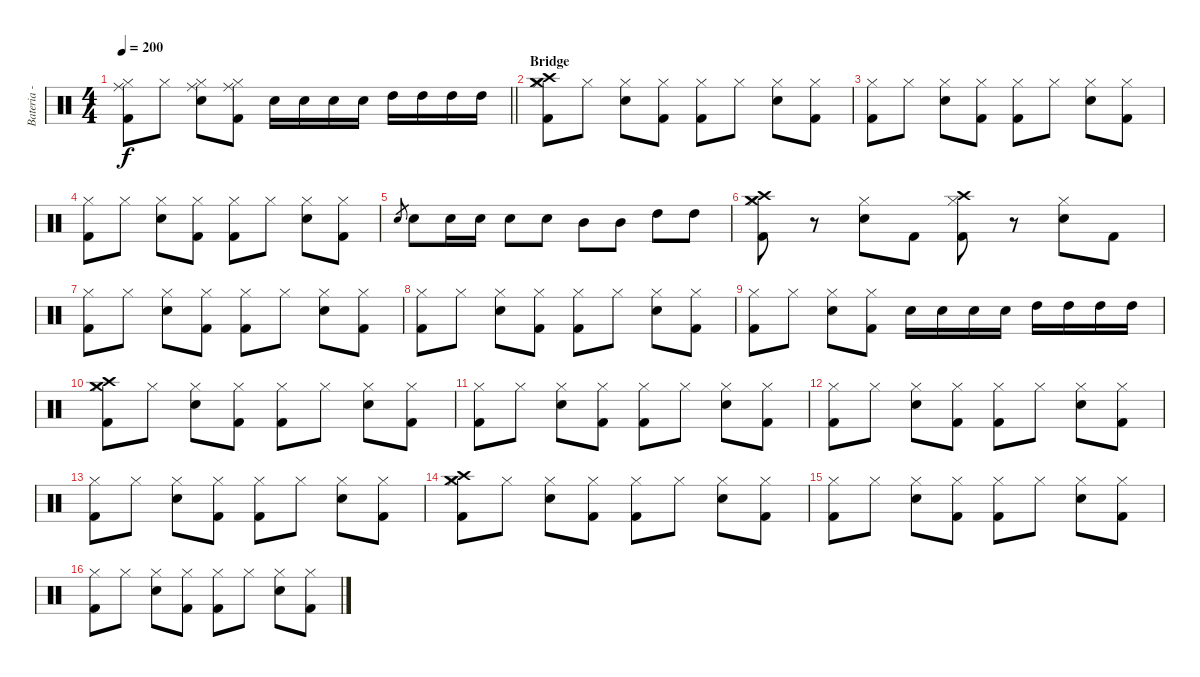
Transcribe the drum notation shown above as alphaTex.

\track ("Bateria - Larzon" "Bateria - ") {instrument percussion}
\staff {score}
\articulation defaults
\ts (4 4)
\tempo 200
\clef neutral
\barLineRight lightlight
\ks c
("Kick (hit) 2" "Hi-Hat (closed)" "Ride (middle)").8{dy f} "Hi-Hat (closed)".8 ("Electric Snare (hit)" "Hi-Hat (closed)" "Ride (middle)").8 ("Kick (hit) 2" "Hi-Hat (closed)" "Ride (middle)").8 "Electric Snare (hit)".16 "Electric Snare (hit)".16 "Electric Snare (hit)".16 "Electric Snare (hit)".16 "High Tom (hit)".16 "High Tom (hit)".16 "High Tom (hit)".16 "High Tom (hit)".16 |
\section ("" "Bridge")
("Kick (hit) 2" "Hi-Hat (closed)" "Crash high (hit)" "Crash medium (hit)").8 "Hi-Hat (closed)".8 ("Electric Snare (hit)" "Hi-Hat (closed)").8 ("Kick (hit) 2" "Hi-Hat (closed)").8 ("Kick (hit) 2" "Hi-Hat (closed)").8 "Hi-Hat (closed)".8 ("Electric Snare (hit)" "Hi-Hat (closed)").8 ("Kick (hit) 2" "Hi-Hat (closed)").8 |
("Kick (hit) 2" "Hi-Hat (closed)").8 "Hi-Hat (closed)".8 ("Electric Snare (hit)" "Hi-Hat (closed)").8 ("Kick (hit) 2" "Hi-Hat (closed)").8 ("Kick (hit) 2" "Hi-Hat (closed)").8 "Hi-Hat (closed)".8 ("Electric Snare (hit)" "Hi-Hat (closed)").8 ("Kick (hit) 2" "Hi-Hat (closed)").8 |
("Kick (hit) 2" "Hi-Hat (closed)").8 "Hi-Hat (closed)".8 ("Electric Snare (hit)" "Hi-Hat (closed)").8 ("Kick (hit) 2" "Hi-Hat (closed)").8 ("Kick (hit) 2" "Hi-Hat (closed)").8 "Hi-Hat (closed)".8 ("Electric Snare (hit)" "Hi-Hat (closed)").8 ("Kick (hit) 2" "Hi-Hat (closed)").8 |
"Electric Snare (hit)".8{gr} "Electric Snare (hit)".8 "Electric Snare (hit)".16 "Electric Snare (hit)".16 "Electric Snare (hit)".8 "Electric Snare (hit)".8 "Mid Tom (hit)".8 "Mid Tom (hit)".8 "High Tom (hit)".8 "High Tom (hit)".8 |
("Kick (hit) 2" "Hi-Hat (closed)" "Crash high (hit)" "Crash medium (hit)").8 r.8 ("Electric Snare (hit)" "Hi-Hat (closed)").8 "Kick (hit) 2".8 ("Kick (hit) 2" "Hi-Hat (closed)" "Crash high (hit)").8 r.8 ("Electric Snare (hit)" "Hi-Hat (closed)").8 "Kick (hit) 2".8 |
("Kick (hit) 2" "Hi-Hat (closed)").8 "Hi-Hat (closed)".8 ("Electric Snare (hit)" "Hi-Hat (closed)").8 ("Kick (hit) 2" "Hi-Hat (closed)").8 ("Kick (hit) 2" "Hi-Hat (closed)").8 "Hi-Hat (closed)".8 ("Electric Snare (hit)" "Hi-Hat (closed)").8 ("Kick (hit) 2" "Hi-Hat (closed)").8 |
("Kick (hit) 2" "Hi-Hat (closed)").8 "Hi-Hat (closed)".8 ("Electric Snare (hit)" "Hi-Hat (closed)").8 ("Kick (hit) 2" "Hi-Hat (closed)").8 ("Kick (hit) 2" "Hi-Hat (closed)").8 "Hi-Hat (closed)".8 ("Electric Snare (hit)" "Hi-Hat (closed)").8 ("Kick (hit) 2" "Hi-Hat (closed)").8 |
("Kick (hit) 2" "Hi-Hat (closed)").8 "Hi-Hat (closed)".8 ("Electric Snare (hit)" "Hi-Hat (closed)").8 ("Kick (hit) 2" "Hi-Hat (closed)").8 "Electric Snare (hit)".16 "Electric Snare (hit)".16 "Electric Snare (hit)".16 "Electric Snare (hit)".16 "High Tom (hit)".16 "High Tom (hit)".16 "High Tom (hit)".16 "High Tom (hit)".16 |
("Kick (hit) 2" "Hi-Hat (closed)" "Crash high (hit)" "Crash medium (hit)").8 "Hi-Hat (closed)".8 ("Electric Snare (hit)" "Hi-Hat (closed)").8 ("Kick (hit) 2" "Hi-Hat (closed)").8 ("Kick (hit) 2" "Hi-Hat (closed)").8 "Hi-Hat (closed)".8 ("Electric Snare (hit)" "Hi-Hat (closed)").8 ("Kick (hit) 2" "Hi-Hat (closed)").8 |
("Kick (hit) 2" "Hi-Hat (closed)").8 "Hi-Hat (closed)".8 ("Electric Snare (hit)" "Hi-Hat (closed)").8 ("Kick (hit) 2" "Hi-Hat (closed)").8 ("Kick (hit) 2" "Hi-Hat (closed)").8 "Hi-Hat (closed)".8 ("Electric Snare (hit)" "Hi-Hat (closed)").8 ("Kick (hit) 2" "Hi-Hat (closed)").8 |
("Kick (hit) 2" "Hi-Hat (closed)").8 "Hi-Hat (closed)".8 ("Electric Snare (hit)" "Hi-Hat (closed)").8 ("Kick (hit) 2" "Hi-Hat (closed)").8 ("Kick (hit) 2" "Hi-Hat (closed)").8 "Hi-Hat (closed)".8 ("Electric Snare (hit)" "Hi-Hat (closed)").8 ("Kick (hit) 2" "Hi-Hat (closed)").8 |
("Kick (hit) 2" "Hi-Hat (closed)").8 "Hi-Hat (closed)".8 ("Electric Snare (hit)" "Hi-Hat (closed)").8 ("Kick (hit) 2" "Hi-Hat (closed)").8 ("Kick (hit) 2" "Hi-Hat (closed)").8 "Hi-Hat (closed)".8 ("Electric Snare (hit)" "Hi-Hat (closed)").8 ("Kick (hit) 2" "Hi-Hat (closed)").8 |
("Kick (hit) 2" "Hi-Hat (closed)" "Crash high (hit)" "Crash medium (hit)").8 "Hi-Hat (closed)".8 ("Electric Snare (hit)" "Hi-Hat (closed)").8 ("Kick (hit) 2" "Hi-Hat (closed)").8 ("Kick (hit) 2" "Hi-Hat (closed)").8 "Hi-Hat (closed)".8 ("Electric Snare (hit)" "Hi-Hat (closed)").8 ("Kick (hit) 2" "Hi-Hat (closed)").8 |
("Kick (hit) 2" "Hi-Hat (closed)").8 "Hi-Hat (closed)".8 ("Electric Snare (hit)" "Hi-Hat (closed)").8 ("Kick (hit) 2" "Hi-Hat (closed)").8 ("Kick (hit) 2" "Hi-Hat (closed)").8 "Hi-Hat (closed)".8 ("Electric Snare (hit)" "Hi-Hat (closed)").8 ("Kick (hit) 2" "Hi-Hat (closed)").8 |
("Kick (hit) 2" "Hi-Hat (closed)").8 "Hi-Hat (closed)".8 ("Electric Snare (hit)" "Hi-Hat (closed)").8 ("Kick (hit) 2" "Hi-Hat (closed)").8 ("Kick (hit) 2" "Hi-Hat (closed)").8 "Hi-Hat (closed)".8 ("Electric Snare (hit)" "Hi-Hat (closed)").8 ("Kick (hit) 2" "Hi-Hat (closed)").8
